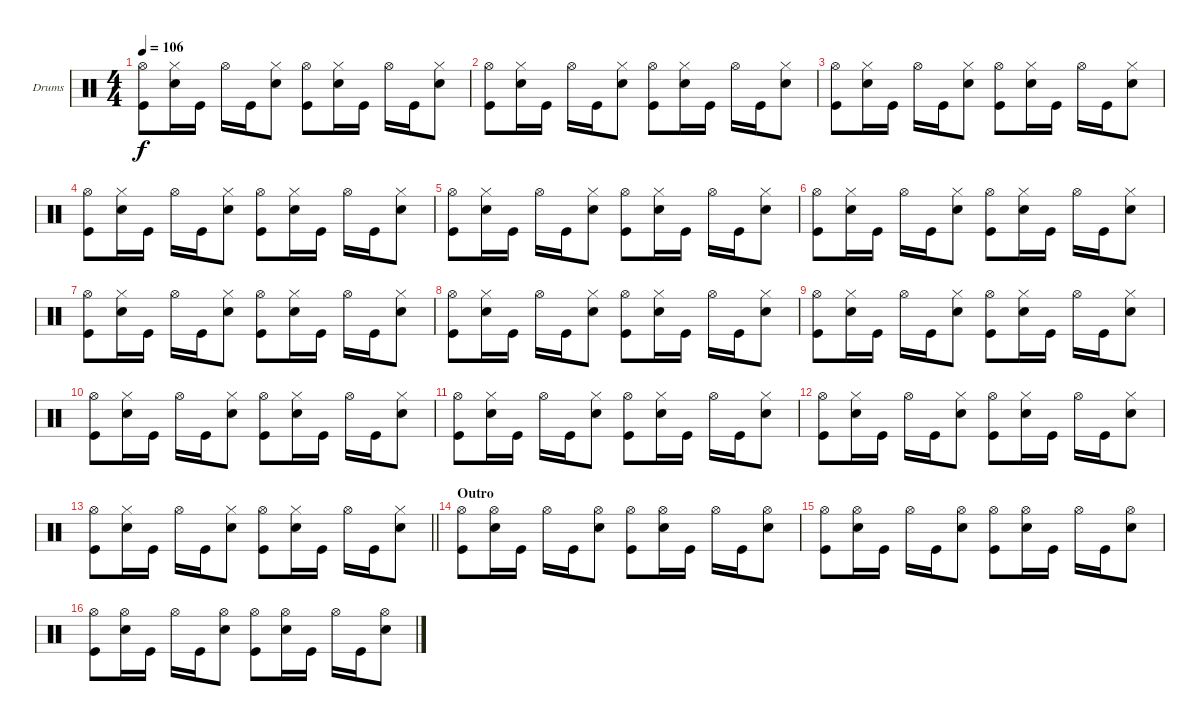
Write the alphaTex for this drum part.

\bracketExtendMode groupsimilarinstruments
\firstSystemTrackNameOrientation horizontal
\otherSystemsTrackNameOrientation horizontal
\track ("Fabrizio" "Drums") {instrument percussion}
\staff {score}
\articulation defaults
\ts (4 4)
\tempo 106
\clef neutral
\ks c
("Hi-Hat (open)" "Kick (hit)").8{dy f} ("Hi-Hat (closed)" "Snare (hit) 2").16 "Kick (hit)".16 "Hi-Hat (open)".16 "Kick (hit)".16 ("Hi-Hat (closed)" "Snare (hit) 2").8 ("Hi-Hat (open)" "Kick (hit)").8 ("Hi-Hat (closed)" "Snare (hit) 2").16 "Kick (hit)".16 "Hi-Hat (open)".16 "Kick (hit)".16 ("Hi-Hat (closed)" "Snare (hit) 2").8 |
("Hi-Hat (open)" "Kick (hit)").8 ("Hi-Hat (closed)" "Snare (hit) 2").16 "Kick (hit)".16 "Hi-Hat (open)".16 "Kick (hit)".16 ("Hi-Hat (closed)" "Snare (hit) 2").8 ("Hi-Hat (open)" "Kick (hit)").8 ("Hi-Hat (closed)" "Snare (hit) 2").16 "Kick (hit)".16 "Hi-Hat (open)".16 "Kick (hit)".16 ("Hi-Hat (closed)" "Snare (hit) 2").8 |
("Hi-Hat (open)" "Kick (hit)").8 ("Hi-Hat (closed)" "Snare (hit) 2").16 "Kick (hit)".16 "Hi-Hat (open)".16 "Kick (hit)".16 ("Hi-Hat (closed)" "Snare (hit) 2").8 ("Hi-Hat (open)" "Kick (hit)").8 ("Hi-Hat (closed)" "Snare (hit) 2").16 "Kick (hit)".16 "Hi-Hat (open)".16 "Kick (hit)".16 ("Hi-Hat (closed)" "Snare (hit) 2").8 |
("Hi-Hat (open)" "Kick (hit)").8 ("Hi-Hat (closed)" "Snare (hit) 2").16 "Kick (hit)".16 "Hi-Hat (open)".16 "Kick (hit)".16 ("Hi-Hat (closed)" "Snare (hit) 2").8 ("Hi-Hat (open)" "Kick (hit)").8 ("Hi-Hat (closed)" "Snare (hit) 2").16 "Kick (hit)".16 "Hi-Hat (open)".16 "Kick (hit)".16 ("Hi-Hat (closed)" "Snare (hit) 2").8 |
("Hi-Hat (open)" "Kick (hit)").8 ("Hi-Hat (closed)" "Snare (hit) 2").16 "Kick (hit)".16 "Hi-Hat (open)".16 "Kick (hit)".16 ("Hi-Hat (closed)" "Snare (hit) 2").8 ("Hi-Hat (open)" "Kick (hit)").8 ("Hi-Hat (closed)" "Snare (hit) 2").16 "Kick (hit)".16 "Hi-Hat (open)".16 "Kick (hit)".16 ("Hi-Hat (closed)" "Snare (hit) 2").8 |
("Hi-Hat (open)" "Kick (hit)").8 ("Hi-Hat (closed)" "Snare (hit) 2").16 "Kick (hit)".16 "Hi-Hat (open)".16 "Kick (hit)".16 ("Hi-Hat (closed)" "Snare (hit) 2").8 ("Hi-Hat (open)" "Kick (hit)").8 ("Hi-Hat (closed)" "Snare (hit) 2").16 "Kick (hit)".16 "Hi-Hat (open)".16 "Kick (hit)".16 ("Hi-Hat (closed)" "Snare (hit) 2").8 |
("Hi-Hat (open)" "Kick (hit)").8 ("Hi-Hat (closed)" "Snare (hit) 2").16 "Kick (hit)".16 "Hi-Hat (open)".16 "Kick (hit)".16 ("Hi-Hat (closed)" "Snare (hit) 2").8 ("Hi-Hat (open)" "Kick (hit)").8 ("Hi-Hat (closed)" "Snare (hit) 2").16 "Kick (hit)".16 "Hi-Hat (open)".16 "Kick (hit)".16 ("Hi-Hat (closed)" "Snare (hit) 2").8 |
("Hi-Hat (open)" "Kick (hit)").8 ("Hi-Hat (closed)" "Snare (hit) 2").16 "Kick (hit)".16 "Hi-Hat (open)".16 "Kick (hit)".16 ("Hi-Hat (closed)" "Snare (hit) 2").8 ("Hi-Hat (open)" "Kick (hit)").8 ("Hi-Hat (closed)" "Snare (hit) 2").16 "Kick (hit)".16 "Hi-Hat (open)".16 "Kick (hit)".16 ("Hi-Hat (closed)" "Snare (hit) 2").8 |
("Hi-Hat (open)" "Kick (hit)").8 ("Hi-Hat (closed)" "Snare (hit) 2").16 "Kick (hit)".16 "Hi-Hat (open)".16 "Kick (hit)".16 ("Hi-Hat (closed)" "Snare (hit) 2").8 ("Hi-Hat (open)" "Kick (hit)").8 ("Hi-Hat (closed)" "Snare (hit) 2").16 "Kick (hit)".16 "Hi-Hat (open)".16 "Kick (hit)".16 ("Hi-Hat (closed)" "Snare (hit) 2").8 |
("Hi-Hat (open)" "Kick (hit)").8 ("Hi-Hat (closed)" "Snare (hit) 2").16 "Kick (hit)".16 "Hi-Hat (open)".16 "Kick (hit)".16 ("Hi-Hat (closed)" "Snare (hit) 2").8 ("Hi-Hat (open)" "Kick (hit)").8 ("Hi-Hat (closed)" "Snare (hit) 2").16 "Kick (hit)".16 "Hi-Hat (open)".16 "Kick (hit)".16 ("Hi-Hat (closed)" "Snare (hit) 2").8 |
("Hi-Hat (open)" "Kick (hit)").8 ("Hi-Hat (closed)" "Snare (hit) 2").16 "Kick (hit)".16 "Hi-Hat (open)".16 "Kick (hit)".16 ("Hi-Hat (closed)" "Snare (hit) 2").8 ("Hi-Hat (open)" "Kick (hit)").8 ("Hi-Hat (closed)" "Snare (hit) 2").16 "Kick (hit)".16 "Hi-Hat (open)".16 "Kick (hit)".16 ("Hi-Hat (closed)" "Snare (hit) 2").8 |
("Hi-Hat (open)" "Kick (hit)").8 ("Hi-Hat (closed)" "Snare (hit) 2").16 "Kick (hit)".16 "Hi-Hat (open)".16 "Kick (hit)".16 ("Hi-Hat (closed)" "Snare (hit) 2").8 ("Hi-Hat (open)" "Kick (hit)").8 ("Hi-Hat (closed)" "Snare (hit) 2").16 "Kick (hit)".16 "Hi-Hat (open)".16 "Kick (hit)".16 ("Hi-Hat (closed)" "Snare (hit) 2").8 |
\barLineRight lightlight
("Hi-Hat (open)" "Kick (hit)").8 ("Hi-Hat (closed)" "Snare (hit) 2").16 "Kick (hit)".16 "Hi-Hat (open)".16 "Kick (hit)".16 ("Hi-Hat (closed)" "Snare (hit) 2").8 ("Hi-Hat (open)" "Kick (hit)").8 ("Hi-Hat (closed)" "Snare (hit) 2").16 "Kick (hit)".16 "Hi-Hat (open)".16 "Kick (hit)".16 ("Hi-Hat (closed)" "Snare (hit) 2").8 |
\section ("" "Outro")
("Hi-Hat (open)" "Kick (hit)").8 ("Hi-Hat (open)" "Snare (hit) 2").16 "Kick (hit)".16 "Hi-Hat (open)".16 "Kick (hit)".16 ("Hi-Hat (open)" "Snare (hit) 2").8 ("Hi-Hat (open)" "Kick (hit)").8 ("Hi-Hat (open)" "Snare (hit) 2").16 "Kick (hit)".16 "Hi-Hat (open)".16 "Kick (hit)".16 ("Hi-Hat (open)" "Snare (hit) 2").8 |
("Hi-Hat (open)" "Kick (hit)").8 ("Hi-Hat (open)" "Snare (hit) 2").16 "Kick (hit)".16 "Hi-Hat (open)".16 "Kick (hit)".16 ("Hi-Hat (open)" "Snare (hit) 2").8 ("Hi-Hat (open)" "Kick (hit)").8 ("Hi-Hat (open)" "Snare (hit) 2").16 "Kick (hit)".16 "Hi-Hat (open)".16 "Kick (hit)".16 ("Hi-Hat (open)" "Snare (hit) 2").8 |
("Hi-Hat (open)" "Kick (hit)").8 ("Hi-Hat (open)" "Snare (hit) 2").16 "Kick (hit)".16 "Hi-Hat (open)".16 "Kick (hit)".16 ("Hi-Hat (open)" "Snare (hit) 2").8 ("Hi-Hat (open)" "Kick (hit)").8 ("Hi-Hat (open)" "Snare (hit) 2").16 "Kick (hit)".16 "Hi-Hat (open)".16 "Kick (hit)".16 ("Hi-Hat (open)" "Snare (hit) 2").8
